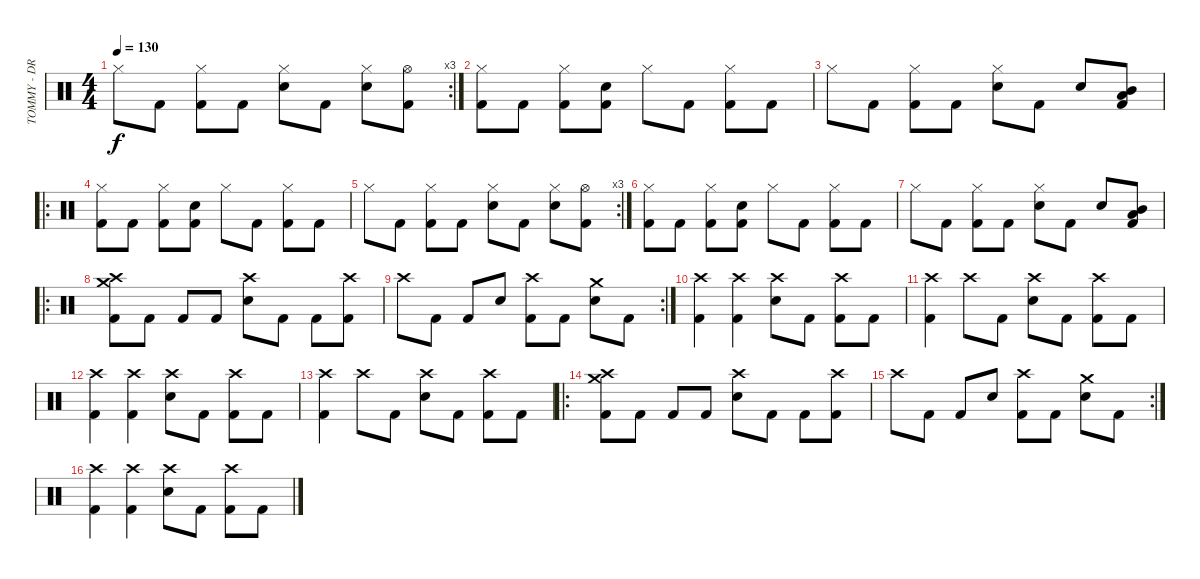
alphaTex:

\track ("TOMMY - DRUMS" "TOMMY - DR") {instrument percussion}
\staff {score}
\articulation defaults
\rc 3
\ts (4 4)
\tempo 130
\clef neutral
\ks c "Hi-Hat (closed)".8{dy f} "Kick (hit) 2".8
("Hi-Hat (closed)" "Kick (hit) 2").8 "Kick (hit) 2".8 ("Hi-Hat (closed)" "Electric Snare (hit)").8 "Kick (hit) 2".8 ("Hi-Hat (closed)" "Electric Snare (hit)").8 ("Hi-Hat (open)" "Kick (hit) 2").8 |
("Hi-Hat (closed)" "Kick (hit) 2").8 "Kick (hit) 2".8 ("Hi-Hat (closed)" "Kick (hit) 2").8 ("Electric Snare (hit)" "Kick (hit) 2").8 "Hi-Hat (closed)".8 "Kick (hit) 2".8 ("Hi-Hat (closed)" "Kick (hit) 2").8 "Kick (hit) 2".8 |
"Hi-Hat (closed)".8 "Kick (hit) 2".8 ("Hi-Hat (closed)" "Kick (hit) 2").8 "Kick (hit) 2".8 ("Hi-Hat (closed)" "Electric Snare (hit)").8 "Kick (hit) 2".8 "Electric Snare (hit)".8 ("Mid Tom (hit)" "Low Floor Tom (hit)" "Kick (hit) 2").8 |
\ro
("Hi-Hat (closed)" "Kick (hit) 2").8 "Kick (hit) 2".8 ("Hi-Hat (closed)" "Kick (hit) 2").8 ("Electric Snare (hit)" "Kick (hit) 2").8 "Hi-Hat (closed)".8 "Kick (hit) 2".8 ("Hi-Hat (closed)" "Kick (hit) 2").8 "Kick (hit) 2".8 |
\rc 3 "Hi-Hat (closed)".8 "Kick (hit) 2".8
("Hi-Hat (closed)" "Kick (hit) 2").8 "Kick (hit) 2".8 ("Hi-Hat (closed)" "Electric Snare (hit)").8 "Kick (hit) 2".8 ("Hi-Hat (closed)" "Electric Snare (hit)").8 ("Hi-Hat (open)" "Kick (hit) 2").8 |
("Hi-Hat (closed)" "Kick (hit) 2").8 "Kick (hit) 2".8 ("Hi-Hat (closed)" "Kick (hit) 2").8 ("Electric Snare (hit)" "Kick (hit) 2").8 "Hi-Hat (closed)".8 "Kick (hit) 2".8 ("Hi-Hat (closed)" "Kick (hit) 2").8 "Kick (hit) 2".8 |
"Hi-Hat (closed)".8 "Kick (hit) 2".8 ("Hi-Hat (closed)" "Kick (hit) 2").8 "Kick (hit) 2".8 ("Hi-Hat (closed)" "Electric Snare (hit)").8 "Kick (hit) 2".8 "Electric Snare (hit)".8 ("Mid Tom (hit)" "Low Floor Tom (hit)" "Kick (hit) 2").8 |
\ro
("Crash medium (hit)" "Crash high (hit)" "Kick (hit) 2").8 "Kick (hit) 2".8 "Kick (hit) 2".8 "Kick (hit) 2".8 ("Crash high (hit)" "Electric Snare (hit)").8 "Kick (hit) 2".8 "Kick (hit) 2".8 ("Crash high (hit)" "Kick (hit) 2").8 |
\rc 2 "Crash high (hit)".8 "Kick (hit) 2".8 "Kick (hit) 2".8 "Electric Snare (hit)".8
("Crash high (hit)" "Kick (hit) 2").8 "Kick (hit) 2".8 ("Crash medium (hit)" "Electric Snare (hit)").8 "Kick (hit) 2".8 |
("Crash high (hit)" "Kick (hit) 2").4 ("Crash high (hit)" "Kick (hit) 2").4 ("Crash high (hit)" "Electric Snare (hit)").8 "Kick (hit) 2".8 ("Crash high (hit)" "Kick (hit) 2").8 "Kick (hit) 2".8 |
("Crash high (hit)" "Kick (hit) 2").4 "Crash high (hit)".8 "Kick (hit) 2".8 ("Crash high (hit)" "Electric Snare (hit)").8 "Kick (hit) 2".8 ("Crash high (hit)" "Kick (hit) 2").8 "Kick (hit) 2".8 |
("Crash high (hit)" "Kick (hit) 2").4 ("Crash high (hit)" "Kick (hit) 2").4 ("Crash high (hit)" "Electric Snare (hit)").8 "Kick (hit) 2".8 ("Crash high (hit)" "Kick (hit) 2").8 "Kick (hit) 2".8 |
("Crash high (hit)" "Kick (hit) 2").4 "Crash high (hit)".8 "Kick (hit) 2".8 ("Crash high (hit)" "Electric Snare (hit)").8 "Kick (hit) 2".8 ("Crash high (hit)" "Kick (hit) 2").8 "Kick (hit) 2".8 |
\ro
("Crash medium (hit)" "Crash high (hit)" "Kick (hit) 2").8 "Kick (hit) 2".8 "Kick (hit) 2".8 "Kick (hit) 2".8 ("Crash high (hit)" "Electric Snare (hit)").8 "Kick (hit) 2".8 "Kick (hit) 2".8 ("Crash high (hit)" "Kick (hit) 2").8 |
\rc 2 "Crash high (hit)".8 "Kick (hit) 2".8 "Kick (hit) 2".8 "Electric Snare (hit)".8
("Crash high (hit)" "Kick (hit) 2").8 "Kick (hit) 2".8 ("Crash medium (hit)" "Electric Snare (hit)").8 "Kick (hit) 2".8 |
("Crash high (hit)" "Kick (hit) 2").4 ("Crash high (hit)" "Kick (hit) 2").4 ("Crash high (hit)" "Electric Snare (hit)").8 "Kick (hit) 2".8 ("Crash high (hit)" "Kick (hit) 2").8 "Kick (hit) 2".8
